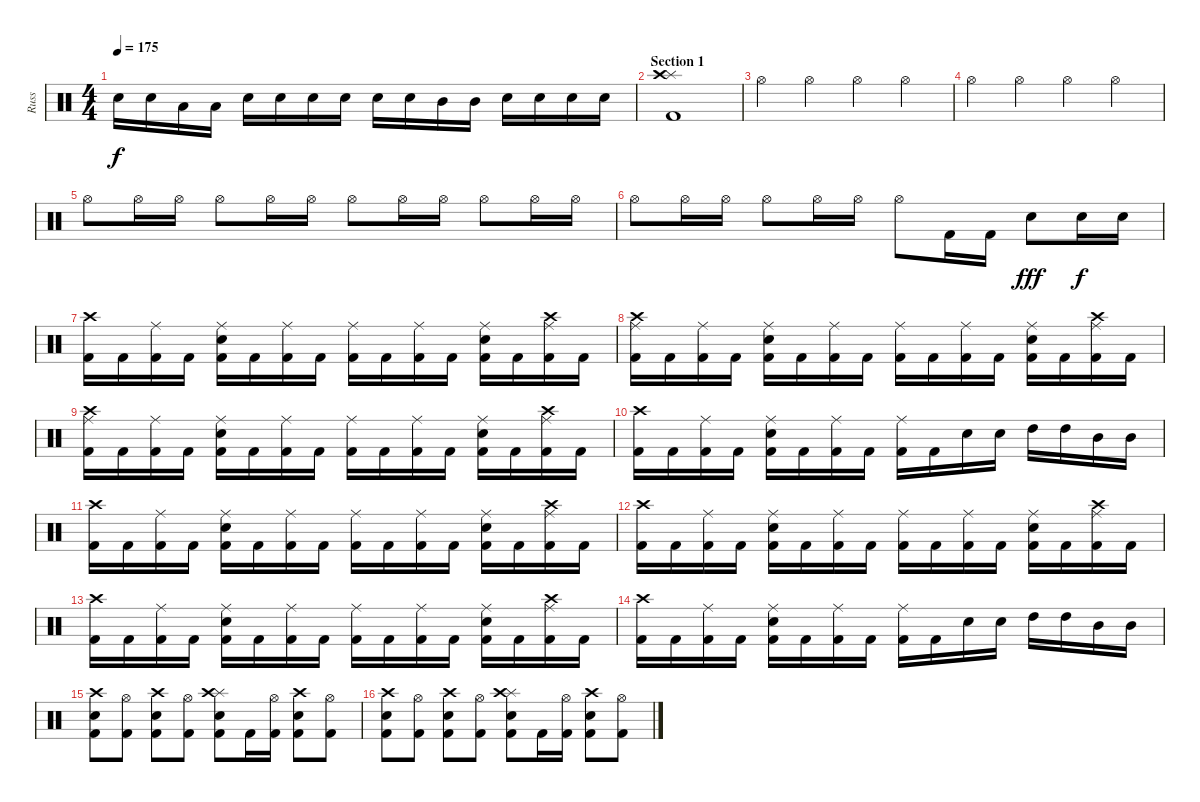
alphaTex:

\track ("Russ" "Russ") {instrument percussion}
\staff {score}
\articulation defaults
\ts (4 4)
\tempo 175
\clef neutral
\ks c "Snare (hit) 2".16{dy f} "Snare (hit) 2".16 "Low Tom (hit)".16 "Low Tom (hit)".16 "Snare (hit) 2".16 "Snare (hit) 2".16 "Snare (hit) 2".16 "Snare (hit) 2".16 "Snare (hit) 2".16 "Snare (hit) 2".16 "Mid Tom (hit)".16 "Mid Tom (hit)".16 "Snare (hit) 2".16 "Snare (hit) 2".16 "Snare (hit) 2".16 "Snare (hit) 2".16
|
\section ("" "Section 1")
("Kick (hit) 2" "Splash (hit)" "Crash high (hit)").1 |
"Hi-Hat (open)".4 "Hi-Hat (open)".4 "Hi-Hat (open)".4 "Hi-Hat (open)".4 |
"Hi-Hat (open)".4 "Hi-Hat (open)".4 "Hi-Hat (open)".4 "Hi-Hat (open)".4 |
"Hi-Hat (open)".8 "Hi-Hat (open)".16 "Hi-Hat (open)".16 "Hi-Hat (open)".8 "Hi-Hat (open)".16 "Hi-Hat (open)".16 "Hi-Hat (open)".8 "Hi-Hat (open)".16 "Hi-Hat (open)".16 "Hi-Hat (open)".8 "Hi-Hat (open)".16 "Hi-Hat (open)".16 |
"Hi-Hat (open)".8 "Hi-Hat (open)".16 "Hi-Hat (open)".16 "Hi-Hat (open)".8 "Hi-Hat (open)".16 "Hi-Hat (open)".16 "Hi-Hat (open)".8 "Kick (hit) 2".16 "Kick (hit) 2".16 "Snare (hit) 2".8{dy fff} "Snare (hit) 2".16{dy f} "Snare (hit) 2".16 |
("Crash high (hit)" "Kick (hit) 2").16 "Kick (hit) 2".16 ("Ride (middle)" "Kick (hit) 2").16 "Kick (hit) 2".16 ("Snare (hit) 2" "Ride (middle)" "Kick (hit) 2").16 "Kick (hit) 2".16 ("Ride (middle)" "Kick (hit) 2").16 "Kick (hit) 2".16 ("Ride (middle)" "Kick (hit) 2").16 "Kick (hit) 2".16 ("Ride (middle)" "Kick (hit) 2").16 "Kick (hit) 2".16 ("Snare (hit) 2" "Ride (middle)" "Kick (hit) 2").16 "Kick (hit) 2".16 ("Crash high (hit)" "Ride (middle)" "Kick (hit) 2").16 "Kick (hit) 2".16 |
("Crash high (hit)" "Ride (middle)" "Kick (hit) 2").16 "Kick (hit) 2".16 ("Ride (middle)" "Kick (hit) 2").16 "Kick (hit) 2".16 ("Snare (hit) 2" "Ride (middle)" "Kick (hit) 2").16 "Kick (hit) 2".16 ("Ride (middle)" "Kick (hit) 2").16 "Kick (hit) 2".16 ("Ride (middle)" "Kick (hit) 2").16 "Kick (hit) 2".16 ("Ride (middle)" "Kick (hit) 2").16 "Kick (hit) 2".16 ("Snare (hit) 2" "Ride (middle)" "Kick (hit) 2").16 "Kick (hit) 2".16 ("Crash high (hit)" "Ride (middle)" "Kick (hit) 2").16 "Kick (hit) 2".16 |
("Crash high (hit)" "Ride (middle)" "Kick (hit) 2").16 "Kick (hit) 2".16 ("Ride (middle)" "Kick (hit) 2").16 "Kick (hit) 2".16 ("Snare (hit) 2" "Ride (middle)" "Kick (hit) 2").16 "Kick (hit) 2".16 ("Ride (middle)" "Kick (hit) 2").16 "Kick (hit) 2".16 ("Ride (middle)" "Kick (hit) 2").16 "Kick (hit) 2".16 ("Ride (middle)" "Kick (hit) 2").16 "Kick (hit) 2".16 ("Snare (hit) 2" "Ride (middle)" "Kick (hit) 2").16 "Kick (hit) 2".16 ("Crash high (hit)" "Ride (middle)" "Kick (hit) 2").16 "Kick (hit) 2".16 |
("Crash high (hit)" "Kick (hit) 2").16 "Kick (hit) 2".16 ("Ride (middle)" "Kick (hit) 2").16 "Kick (hit) 2".16 ("Snare (hit) 2" "Ride (middle)" "Kick (hit) 2").16 "Kick (hit) 2".16 ("Ride (middle)" "Kick (hit) 2").16 "Kick (hit) 2".16 ("Ride (middle)" "Kick (hit) 2").16 "Kick (hit) 2".16 "Snare (hit) 2".16 "Snare (hit) 2".16 "High Tom (hit)".16 "High Tom (hit)".16 "Mid Tom (hit)".16 "Mid Tom (hit)".16 |
("Crash high (hit)" "Kick (hit) 2").16 "Kick (hit) 2".16 ("Ride (middle)" "Kick (hit) 2").16 "Kick (hit) 2".16 ("Snare (hit) 2" "Ride (middle)" "Kick (hit) 2").16 "Kick (hit) 2".16 ("Ride (middle)" "Kick (hit) 2").16 "Kick (hit) 2".16 ("Ride (middle)" "Kick (hit) 2").16 "Kick (hit) 2".16 ("Ride (middle)" "Kick (hit) 2").16 "Kick (hit) 2".16 ("Snare (hit) 2" "Ride (middle)" "Kick (hit) 2").16 "Kick (hit) 2".16 ("Crash high (hit)" "Ride (middle)" "Kick (hit) 2").16 "Kick (hit) 2".16 |
("Crash high (hit)" "Kick (hit) 2").16 "Kick (hit) 2".16 ("Ride (middle)" "Kick (hit) 2").16 "Kick (hit) 2".16 ("Snare (hit) 2" "Ride (middle)" "Kick (hit) 2").16 "Kick (hit) 2".16 ("Ride (middle)" "Kick (hit) 2").16 "Kick (hit) 2".16 ("Ride (middle)" "Kick (hit) 2").16 "Kick (hit) 2".16 ("Ride (middle)" "Kick (hit) 2").16 "Kick (hit) 2".16 ("Snare (hit) 2" "Ride (middle)" "Kick (hit) 2").16 "Kick (hit) 2".16 ("Crash high (hit)" "Ride (middle)" "Kick (hit) 2").16 "Kick (hit) 2".16 |
("Crash high (hit)" "Kick (hit) 2").16 "Kick (hit) 2".16 ("Ride (middle)" "Kick (hit) 2").16 "Kick (hit) 2".16 ("Snare (hit) 2" "Ride (middle)" "Kick (hit) 2").16 "Kick (hit) 2".16 ("Ride (middle)" "Kick (hit) 2").16 "Kick (hit) 2".16 ("Ride (middle)" "Kick (hit) 2").16 "Kick (hit) 2".16 ("Ride (middle)" "Kick (hit) 2").16 "Kick (hit) 2".16 ("Snare (hit) 2" "Ride (middle)" "Kick (hit) 2").16 "Kick (hit) 2".16 ("Crash high (hit)" "Ride (middle)" "Kick (hit) 2").16 "Kick (hit) 2".16 |
("Crash high (hit)" "Kick (hit) 2").16 "Kick (hit) 2".16 ("Ride (middle)" "Kick (hit) 2").16 "Kick (hit) 2".16 ("Snare (hit) 2" "Ride (middle)" "Kick (hit) 2").16 "Kick (hit) 2".16 ("Ride (middle)" "Kick (hit) 2").16 "Kick (hit) 2".16 ("Ride (middle)" "Kick (hit) 2").16 "Kick (hit) 2".16 "Snare (hit) 2".16 "Snare (hit) 2".16 "High Tom (hit)".16 "High Tom (hit)".16 "Mid Tom (hit)".16 "Mid Tom (hit)".16 |
("Kick (hit) 2" "Snare (hit) 2" "Crash high (hit)").8 ("Kick (hit) 2" "Hi-Hat (open)").8 ("Kick (hit) 2" "Snare (hit) 2" "Crash high (hit)").8 ("Kick (hit) 2" "Hi-Hat (open)").8 ("Kick (hit) 2" "Snare (hit) 2" "Splash (hit)" "Crash high (hit)").8 "Kick (hit) 2".16 ("Kick (hit) 2" "Hi-Hat (open)").16 ("Kick (hit) 2" "Snare (hit) 2" "Crash high (hit)").8 ("Kick (hit) 2" "Hi-Hat (open)").8 |
("Kick (hit) 2" "Snare (hit) 2" "Crash high (hit)").8 ("Kick (hit) 2" "Hi-Hat (open)").8 ("Kick (hit) 2" "Snare (hit) 2" "Crash high (hit)").8 ("Kick (hit) 2" "Hi-Hat (open)").8 ("Kick (hit) 2" "Snare (hit) 2" "Splash (hit)" "Crash high (hit)").8 "Kick (hit) 2".16 ("Kick (hit) 2" "Hi-Hat (open)").16 ("Kick (hit) 2" "Snare (hit) 2" "Crash high (hit)").8 ("Kick (hit) 2" "Hi-Hat (open)").8
